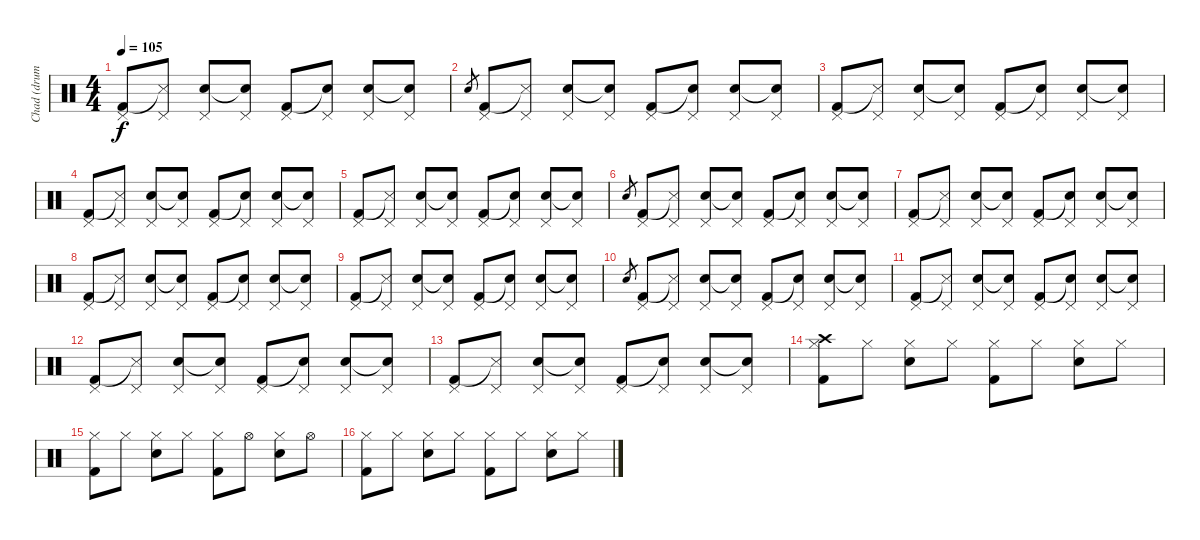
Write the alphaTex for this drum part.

\track ("Chad (drums)" "Chad (drum") {instrument percussion}
\staff {score}
\articulation defaults
\ts (4 4)
\tempo 105
\clef neutral
\ks c
("Pedal Hi-Hat (hit)" "Kick (hit) 2").8{dy f} ("Pedal Hi-Hat (hit)" "Snare (side stick) 3"{t}).8 ("Pedal Hi-Hat (hit)" "Electric Snare (hit)").8 ("Pedal Hi-Hat (hit)" "Snare (hit)"{t}).8 ("Pedal Hi-Hat (hit)" "Kick (hit) 2").8 ("Pedal Hi-Hat (hit)" "Snare (hit)"{t}).8 ("Pedal Hi-Hat (hit)" "Electric Snare (hit)").8 ("Pedal Hi-Hat (hit)" "Snare (hit)"{t}).8 |
"Electric Snare (hit)".8{gr} ("Pedal Hi-Hat (hit)" "Kick (hit) 2").8 ("Pedal Hi-Hat (hit)" "Snare (side stick) 3"{t}).8 ("Pedal Hi-Hat (hit)" "Electric Snare (hit)").8 ("Pedal Hi-Hat (hit)" "Snare (hit)"{t}).8 ("Pedal Hi-Hat (hit)" "Kick (hit) 2").8 ("Pedal Hi-Hat (hit)" "Snare (hit)"{t}).8 ("Pedal Hi-Hat (hit)" "Electric Snare (hit)").8 ("Pedal Hi-Hat (hit)" "Snare (hit)"{t}).8 |
("Pedal Hi-Hat (hit)" "Kick (hit) 2").8 ("Pedal Hi-Hat (hit)" "Snare (side stick) 3"{t}).8 ("Pedal Hi-Hat (hit)" "Electric Snare (hit)").8 ("Pedal Hi-Hat (hit)" "Snare (hit)"{t}).8 ("Pedal Hi-Hat (hit)" "Kick (hit) 2").8 ("Pedal Hi-Hat (hit)" "Snare (hit)"{t}).8 ("Pedal Hi-Hat (hit)" "Electric Snare (hit)").8 ("Pedal Hi-Hat (hit)" "Snare (hit)"{t}).8 |
("Pedal Hi-Hat (hit)" "Kick (hit) 2").8 ("Pedal Hi-Hat (hit)" "Snare (side stick) 3"{t}).8 ("Pedal Hi-Hat (hit)" "Electric Snare (hit)").8 ("Pedal Hi-Hat (hit)" "Snare (hit)"{t}).8 ("Pedal Hi-Hat (hit)" "Kick (hit) 2").8 ("Pedal Hi-Hat (hit)" "Snare (hit)"{t}).8 ("Pedal Hi-Hat (hit)" "Electric Snare (hit)").8 ("Pedal Hi-Hat (hit)" "Snare (hit)"{t}).8 |
("Pedal Hi-Hat (hit)" "Kick (hit) 2").8 ("Pedal Hi-Hat (hit)" "Snare (side stick) 3"{t}).8 ("Pedal Hi-Hat (hit)" "Electric Snare (hit)").8 ("Pedal Hi-Hat (hit)" "Snare (hit)"{t}).8 ("Pedal Hi-Hat (hit)" "Kick (hit) 2").8 ("Pedal Hi-Hat (hit)" "Snare (hit)"{t}).8 ("Pedal Hi-Hat (hit)" "Electric Snare (hit)").8 ("Pedal Hi-Hat (hit)" "Snare (hit)"{t}).8 |
"Electric Snare (hit)".8{gr} ("Pedal Hi-Hat (hit)" "Kick (hit) 2").8 ("Pedal Hi-Hat (hit)" "Snare (side stick) 3"{t}).8 ("Pedal Hi-Hat (hit)" "Electric Snare (hit)").8 ("Pedal Hi-Hat (hit)" "Snare (hit)"{t}).8 ("Pedal Hi-Hat (hit)" "Kick (hit) 2").8 ("Pedal Hi-Hat (hit)" "Snare (hit)"{t}).8 ("Pedal Hi-Hat (hit)" "Electric Snare (hit)").8 ("Pedal Hi-Hat (hit)" "Snare (hit)"{t}).8 |
("Pedal Hi-Hat (hit)" "Kick (hit) 2").8 ("Pedal Hi-Hat (hit)" "Snare (side stick) 3"{t}).8 ("Pedal Hi-Hat (hit)" "Electric Snare (hit)").8 ("Pedal Hi-Hat (hit)" "Snare (hit)"{t}).8 ("Pedal Hi-Hat (hit)" "Kick (hit) 2").8 ("Pedal Hi-Hat (hit)" "Snare (hit)"{t}).8 ("Pedal Hi-Hat (hit)" "Electric Snare (hit)").8 ("Pedal Hi-Hat (hit)" "Snare (hit)"{t}).8 |
("Pedal Hi-Hat (hit)" "Kick (hit) 2").8 ("Pedal Hi-Hat (hit)" "Snare (side stick) 3"{t}).8 ("Pedal Hi-Hat (hit)" "Electric Snare (hit)").8 ("Pedal Hi-Hat (hit)" "Snare (hit)"{t}).8 ("Pedal Hi-Hat (hit)" "Kick (hit) 2").8 ("Pedal Hi-Hat (hit)" "Snare (hit)"{t}).8 ("Pedal Hi-Hat (hit)" "Electric Snare (hit)").8 ("Pedal Hi-Hat (hit)" "Snare (hit)"{t}).8 |
("Pedal Hi-Hat (hit)" "Kick (hit) 2").8 ("Pedal Hi-Hat (hit)" "Snare (side stick) 3"{t}).8 ("Pedal Hi-Hat (hit)" "Electric Snare (hit)").8 ("Pedal Hi-Hat (hit)" "Snare (hit)"{t}).8 ("Pedal Hi-Hat (hit)" "Kick (hit) 2").8 ("Pedal Hi-Hat (hit)" "Snare (hit)"{t}).8 ("Pedal Hi-Hat (hit)" "Electric Snare (hit)").8 ("Pedal Hi-Hat (hit)" "Snare (hit)"{t}).8 |
"Electric Snare (hit)".8{gr} ("Pedal Hi-Hat (hit)" "Kick (hit) 2").8 ("Pedal Hi-Hat (hit)" "Snare (side stick) 3"{t}).8 ("Pedal Hi-Hat (hit)" "Electric Snare (hit)").8 ("Pedal Hi-Hat (hit)" "Snare (hit)"{t}).8 ("Pedal Hi-Hat (hit)" "Kick (hit) 2").8 ("Pedal Hi-Hat (hit)" "Snare (hit)"{t}).8 ("Pedal Hi-Hat (hit)" "Electric Snare (hit)").8 ("Pedal Hi-Hat (hit)" "Snare (hit)"{t}).8 |
("Pedal Hi-Hat (hit)" "Kick (hit) 2").8 ("Pedal Hi-Hat (hit)" "Snare (side stick) 3"{t}).8 ("Pedal Hi-Hat (hit)" "Electric Snare (hit)").8 ("Pedal Hi-Hat (hit)" "Snare (hit)"{t}).8 ("Pedal Hi-Hat (hit)" "Kick (hit) 2").8 ("Pedal Hi-Hat (hit)" "Snare (hit)"{t}).8 ("Pedal Hi-Hat (hit)" "Electric Snare (hit)").8 ("Pedal Hi-Hat (hit)" "Snare (hit)"{t}).8 |
("Pedal Hi-Hat (hit)" "Kick (hit) 2").8 ("Pedal Hi-Hat (hit)" "Snare (side stick) 3"{t}).8 ("Pedal Hi-Hat (hit)" "Electric Snare (hit)").8 ("Pedal Hi-Hat (hit)" "Snare (hit)"{t}).8 ("Pedal Hi-Hat (hit)" "Kick (hit) 2").8 ("Pedal Hi-Hat (hit)" "Snare (hit)"{t}).8 ("Pedal Hi-Hat (hit)" "Electric Snare (hit)").8 ("Pedal Hi-Hat (hit)" "Snare (hit)"{t}).8 |
("Pedal Hi-Hat (hit)" "Kick (hit) 2").8 ("Pedal Hi-Hat (hit)" "Snare (side stick) 3"{t}).8 ("Pedal Hi-Hat (hit)" "Electric Snare (hit)").8 ("Pedal Hi-Hat (hit)" "Snare (hit)"{t}).8 ("Pedal Hi-Hat (hit)" "Kick (hit) 2").8 ("Pedal Hi-Hat (hit)" "Snare (hit)"{t}).8 ("Pedal Hi-Hat (hit)" "Electric Snare (hit)").8 ("Pedal Hi-Hat (hit)" "Snare (hit)"{t}).8 |
("Hi-Hat (closed)" "Kick (hit) 2" "Crash high (hit)").8 "Hi-Hat (closed)".8 ("Hi-Hat (closed)" "Electric Snare (hit)").8 "Hi-Hat (closed)".8 ("Hi-Hat (closed)" "Kick (hit) 2").8 "Hi-Hat (closed)".8 ("Hi-Hat (closed)" "Electric Snare (hit)").8 "Hi-Hat (closed)".8 |
("Hi-Hat (closed)" "Kick (hit) 2").8 "Hi-Hat (closed)".8 ("Hi-Hat (closed)" "Electric Snare (hit)").8 "Hi-Hat (closed)".8 ("Hi-Hat (closed)" "Kick (hit) 2").8 "Hi-Hat (open)".8 ("Hi-Hat (closed)" "Electric Snare (hit)").8 "Hi-Hat (open)".8 |
("Hi-Hat (closed)" "Kick (hit) 2").8 "Hi-Hat (closed)".8 ("Hi-Hat (closed)" "Electric Snare (hit)").8 "Hi-Hat (closed)".8 ("Hi-Hat (closed)" "Kick (hit) 2").8 "Hi-Hat (closed)".8 ("Hi-Hat (closed)" "Electric Snare (hit)").8 "Hi-Hat (closed)".8
